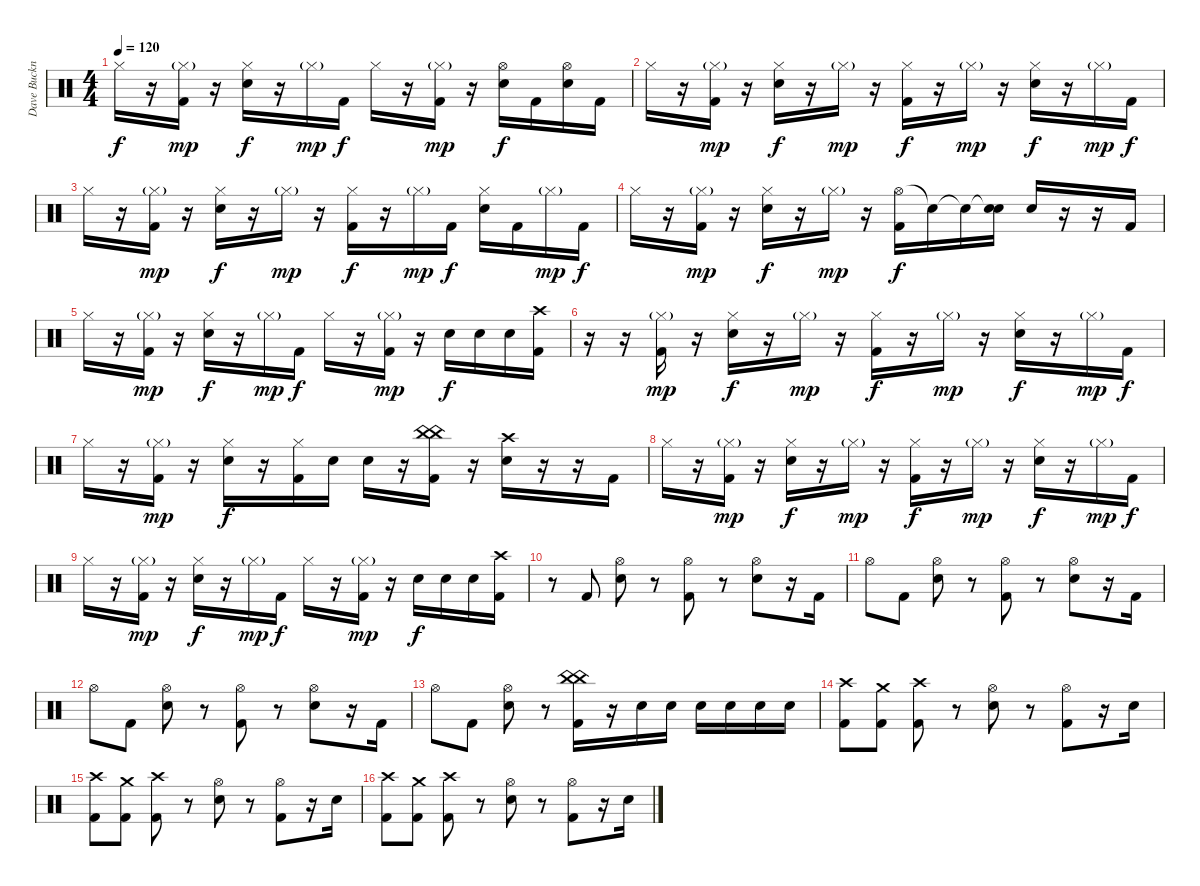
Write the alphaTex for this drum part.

\track ("Dave Buckner RULZ!!! (Drums)" "Dave Buckn") {instrument percussion}
\staff {score}
\articulation defaults
\ts (4 4)
\tempo 120
\clef neutral
\ks c "Hi-Hat (closed)".16{dy f}
r.16 ("Hi-Hat (closed)"{g} "Kick (hit) 2").16{dy mp} r.16 ("Hi-Hat (closed)" "Electric Snare (hit)").16{dy f} r.16 "Hi-Hat (closed)"{g}.16{dy mp} "Kick (hit) 2".16{dy f} "Hi-Hat (closed)".16 r.16 ("Hi-Hat (closed)"{g} "Kick (hit) 2").16{dy mp} r.16 ("Hi-Hat (open)" "Electric Snare (hit)").16{dy f} "Kick (hit) 2".16 ("Hi-Hat (open)" "Electric Snare (hit)").16 "Kick (hit) 2".16 |
"Hi-Hat (closed)".16 r.16 ("Hi-Hat (closed)"{g} "Kick (hit) 2").16{dy mp} r.16 ("Hi-Hat (closed)" "Electric Snare (hit)").16{dy f} r.16 "Hi-Hat (closed)"{g}.16{dy mp} r.16 ("Hi-Hat (closed)" "Kick (hit) 2").16{dy f} r.16 "Hi-Hat (closed)"{g}.16{dy mp} r.16 ("Hi-Hat (closed)" "Electric Snare (hit)").16{dy f} r.16 "Hi-Hat (closed)"{g}.16{dy mp} "Kick (hit) 2".16{dy f} |
"Hi-Hat (closed)".16 r.16 ("Hi-Hat (closed)"{g} "Kick (hit) 2").16{dy mp} r.16 ("Hi-Hat (closed)" "Electric Snare (hit)").16{dy f} r.16 "Hi-Hat (closed)"{g}.16{dy mp} r.16 ("Hi-Hat (closed)" "Kick (hit) 2").16{dy f} r.16 "Hi-Hat (closed)"{g}.16{dy mp} "Kick (hit) 2".16{dy f} ("Hi-Hat (closed)" "Electric Snare (hit)").16 "Kick (hit) 2".16 "Hi-Hat (closed)"{g}.16{dy mp} "Kick (hit) 2".16{dy f} |
"Hi-Hat (closed)".16 r.16 ("Hi-Hat (closed)"{g} "Kick (hit) 2").16{dy mp} r.16 ("Hi-Hat (closed)" "Electric Snare (hit)").16{dy f} r.16 "Hi-Hat (closed)"{g}.16{dy mp} r.16 ("Hi-Hat (open)" "Kick (hit) 2").16{dy f} "Snare (hit)"{t}.16 "Snare (hit)"{t}.16 ("Snare (hit)"{t} "Electric Snare (hit)").16 "Electric Snare (hit)".16 r.16 r.16 "Kick (hit) 2".16 |
"Hi-Hat (closed)".16 r.16 ("Hi-Hat (closed)"{g} "Kick (hit) 2").16{dy mp} r.16 ("Hi-Hat (closed)" "Electric Snare (hit)").16{dy f} r.16 "Hi-Hat (closed)"{g}.16{dy mp} "Kick (hit) 2".16{dy f} "Hi-Hat (closed)".16 r.16 ("Hi-Hat (closed)"{g} "Kick (hit) 2").16{dy mp} r.16 "Electric Snare (hit)".16{dy f} "Electric Snare (hit)".16 "Electric Snare (hit)".16 ("Crash high (hit)" "Kick (hit) 2").16 |
r.16 r.16 ("Hi-Hat (closed)"{g} "Kick (hit) 2").16{dy mp} r.16 ("Hi-Hat (closed)" "Electric Snare (hit)").16{dy f} r.16 "Hi-Hat (closed)"{g}.16{dy mp} r.16 ("Hi-Hat (closed)" "Kick (hit) 2").16{dy f} r.16 "Hi-Hat (closed)"{g}.16{dy mp} r.16 ("Hi-Hat (closed)" "Electric Snare (hit)").16{dy f} r.16 "Hi-Hat (closed)"{g}.16{dy mp} "Kick (hit) 2".16{dy f} |
"Hi-Hat (closed)".16 r.16 ("Hi-Hat (closed)"{g} "Kick (hit) 2").16{dy mp} r.16 ("Hi-Hat (closed)" "Electric Snare (hit)").16{dy f} r.16 ("Hi-Hat (closed)" "Kick (hit) 2").16 "Electric Snare (hit)".16 "Electric Snare (hit)".16 r.16 ("China (hit)" "China (hit)" "Kick (hit) 2").16 r.16 ("Crash high (hit)" "Electric Snare (hit)").16 r.16 r.16 "Kick (hit) 2".16 |
"Hi-Hat (closed)".16 r.16 ("Hi-Hat (closed)"{g} "Kick (hit) 2").16{dy mp} r.16 ("Hi-Hat (closed)" "Electric Snare (hit)").16{dy f} r.16 "Hi-Hat (closed)"{g}.16{dy mp} r.16 ("Hi-Hat (closed)" "Kick (hit) 2").16{dy f} r.16 "Hi-Hat (closed)"{g}.16{dy mp} r.16 ("Hi-Hat (closed)" "Electric Snare (hit)").16{dy f} r.16 "Hi-Hat (closed)"{g}.16{dy mp} "Kick (hit) 2".16{dy f} |
"Hi-Hat (closed)".16 r.16 ("Hi-Hat (closed)"{g} "Kick (hit) 2").16{dy mp} r.16 ("Hi-Hat (closed)" "Electric Snare (hit)").16{dy f} r.16 "Hi-Hat (closed)"{g}.16{dy mp} "Kick (hit) 2".16{dy f} "Hi-Hat (closed)".16 r.16 ("Hi-Hat (closed)"{g} "Kick (hit) 2").16{dy mp} r.16 "Electric Snare (hit)".16{dy f} "Electric Snare (hit)".16 "Electric Snare (hit)".16 ("Crash high (hit)" "Kick (hit) 2").16 |
r.8 "Kick (hit) 2".8 ("Hi-Hat (open)" "Electric Snare (hit)").8 r.8 ("Hi-Hat (open)" "Kick (hit) 2").8 r.8 ("Hi-Hat (open)" "Electric Snare (hit)").8 r.16 "Kick (hit) 2".16 |
"Hi-Hat (open)".8 "Kick (hit) 2".8 ("Hi-Hat (open)" "Electric Snare (hit)").8 r.8 ("Hi-Hat (open)" "Kick (hit) 2").8 r.8 ("Hi-Hat (open)" "Electric Snare (hit)").8 r.16 "Kick (hit) 2".16 |
"Hi-Hat (open)".8 "Kick (hit) 2".8 ("Hi-Hat (open)" "Electric Snare (hit)").8 r.8 ("Hi-Hat (open)" "Kick (hit) 2").8 r.8 ("Hi-Hat (open)" "Electric Snare (hit)").8 r.16 "Kick (hit) 2".16 |
"Hi-Hat (open)".8 "Kick (hit) 2".8 ("Hi-Hat (open)" "Electric Snare (hit)").8 r.8 ("China (hit)" "China (hit)" "Kick (hit) 2").16 r.16 "Electric Snare (hit)".16 "Electric Snare (hit)".16 "Electric Snare (hit)".16 "Electric Snare (hit)".16 "Electric Snare (hit)".16 "Electric Snare (hit)".16 |
("Crash high (hit)" "Kick (hit) 2").8 ("Crash medium (hit)" "Kick (hit) 2").8 ("Crash high (hit)" "Kick (hit) 2").8 r.8 ("Hi-Hat (open)" "Electric Snare (hit)").8 r.8 ("Hi-Hat (open)" "Kick (hit) 2").8 r.16 "Electric Snare (hit)".16 |
("Crash high (hit)" "Kick (hit) 2").8 ("Crash medium (hit)" "Kick (hit) 2").8 ("Crash high (hit)" "Kick (hit) 2").8 r.8 ("Hi-Hat (open)" "Electric Snare (hit)").8 r.8 ("Hi-Hat (open)" "Kick (hit) 2").8 r.16 "Electric Snare (hit)".16 |
("Crash high (hit)" "Kick (hit) 2").8 ("Crash medium (hit)" "Kick (hit) 2").8 ("Crash high (hit)" "Kick (hit) 2").8 r.8 ("Hi-Hat (open)" "Electric Snare (hit)").8 r.8 ("Hi-Hat (open)" "Kick (hit) 2").8 r.16 "Electric Snare (hit)".16
